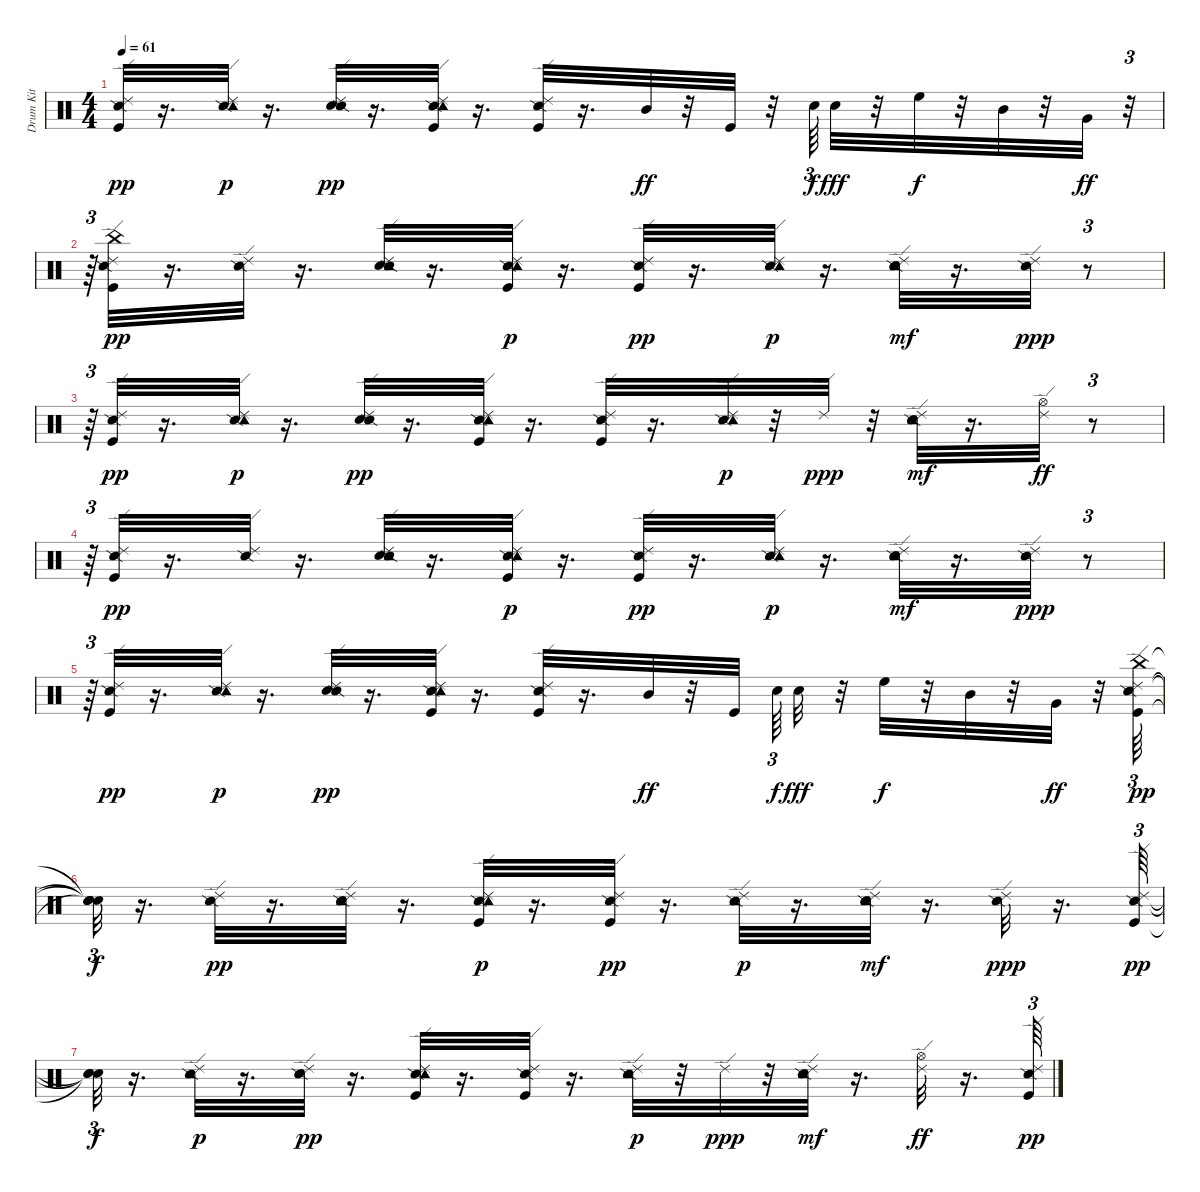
\track ("Drum Kit" "Drum Kit") {instrument percussion}
\staff {score}
\articulation defaults
\ts (4 4)
\tempo 61
\clef neutral
\ks c
("Kick (hit)" "Ride (edge) 2" "Snare (side stick) 2").32{dy pp} r.16{d} ("Ride (edge) 2" "Snare (side stick) 2" "Tambourine (hit)").32{dy p} r.16{d} ("Snare (hit) 2" "Ride (edge) 2" "Snare (side stick) 2").32{dy pp} r.16{d} ("Kick (hit)" "Ride (edge) 2" "Snare (side stick) 2" "Tambourine (hit)").32 r.16{d} ("Kick (hit)" "Ride (edge) 2" "Snare (side stick) 2").32 r.16{d} "Mid Tom (hit)".32{dy ff} r.32 "Kick (hit)".32 r.32 "Snare (hit) 2".64{tu (3 2) dy f} "Electric Snare (hit)".32{dy fff} r.32 "High Floor Tom (hit)".32{dy f} r.32 "Mid Tom (hit)".32 r.32 "Very Low Tom (hit)".32{dy ff} r.32{tu (3 2)} |
r.64{tu (3 2)} ("China (hit)" "Kick (hit)" "Ride (edge) 2" "Snare (side stick) 2").32{dy pp} r.16{d} ("Ride (edge) 2" "Snare (side stick) 2").32 r.16{d} ("Snare (hit) 2" "Ride (edge) 2" "Snare (side stick) 2" "Tambourine (hit)").32 r.16{d} ("Kick (hit)" "Ride (edge) 2" "Snare (side stick) 2" "Tambourine (hit)").32{dy p} r.16{d} ("Kick (hit)" "Ride (edge) 2" "Snare (side stick) 2").32{dy pp} r.16{d} ("Ride (edge) 2" "Snare (side stick) 2" "Tambourine (hit)").32{dy p} r.16{d} ("Snare (hit) 2" "Ride (edge) 2" "Snare (side stick) 2" "Tambourine (hit)").32{dy mf} r.16{d} ("Ride (edge) 2" "Snare (side stick) 2").32{dy ppp} r.8{tu (3 2)} |
r.64{tu (3 2)} ("Kick (hit)" "Ride (edge) 2" "Snare (side stick) 2").32{dy pp} r.16{d} ("Ride (edge) 2" "Snare (side stick) 2" "Tambourine (hit)").32{dy p} r.16{d} ("Snare (hit) 2" "Ride (edge) 2" "Snare (side stick) 2").32{dy pp} r.16{d} ("Kick (hit)" "Ride (edge) 2" "Snare (side stick) 2" "Tambourine (hit)").32 r.16{d} ("Kick (hit)" "Ride (edge) 2" "Snare (side stick) 2").32 r.16{d} ("Ride (edge) 2" "Snare (side stick) 2" "Tambourine (hit)").32{dy p} r.32 "Ride (edge) 2".32{dy ppp} r.32 ("Snare (hit) 2" "Ride (edge) 2" "Snare (side stick) 2" "Tambourine (hit)").32{dy mf} r.16{d} ("Ride (edge) 2" "Hi-Hat (open)").32{dy ff} r.8{tu (3 2)} |
r.64{tu (3 2)} ("Kick (hit)" "Ride (edge) 2" "Snare (side stick) 2").32{dy pp} r.16{d} ("Ride (edge) 2" "Snare (side stick) 2").32 r.16{d} ("Snare (hit) 2" "Ride (edge) 2" "Snare (side stick) 2" "Tambourine (hit)").32 r.16{d} ("Kick (hit)" "Ride (edge) 2" "Snare (side stick) 2" "Tambourine (hit)").32{dy p} r.16{d} ("Kick (hit)" "Ride (edge) 2" "Snare (side stick) 2").32{dy pp} r.16{d} ("Ride (edge) 2" "Snare (side stick) 2" "Tambourine (hit)").32{dy p} r.16{d} ("Snare (hit) 2" "Ride (edge) 2" "Snare (side stick) 2" "Tambourine (hit)").32{dy mf} r.16{d} ("Ride (edge) 2" "Snare (side stick) 2").32{dy ppp} r.8{tu (3 2)} |
r.64{tu (3 2)} ("Kick (hit)" "Ride (edge) 2" "Snare (side stick) 2").32{dy pp} r.16{d} ("Ride (edge) 2" "Snare (side stick) 2" "Tambourine (hit)").32{dy p} r.16{d} ("Snare (hit) 2" "Ride (edge) 2" "Snare (side stick) 2").32{dy pp} r.16{d} ("Kick (hit)" "Ride (edge) 2" "Snare (side stick) 2" "Tambourine (hit)").32 r.16{d} ("Kick (hit)" "Ride (edge) 2" "Snare (side stick) 2").32 r.16{d} "Mid Tom (hit)".32{dy ff} r.32 "Kick (hit)".32{beam splitsecondary} "Snare (hit) 2".64{tu (3 2) dy f} "Electric Snare (hit)".32{dy fff} r.32 "High Floor Tom (hit)".32{dy f} r.32 "Mid Tom (hit)".32 r.32 "Very Low Tom (hit)".32{dy ff} r.32 ("China (hit)" "Kick (hit)" "Ride (edge) 2" "Snare (side stick) 2").64{tu (3 2) dy pp} |
("Snare (hit)"{t} "Snare (hit)"{t} "Snare (hit)"{t} "Snare (hit)"{t}).32{tu (3 2) dy f} r.16{d} ("Ride (edge) 2" "Snare (side stick) 2").32{dy pp} r.16{d} ("Snare (hit) 2" "Ride (edge) 2" "Snare (side stick) 2" "Tambourine (hit)").32 r.16{d} ("Kick (hit)" "Ride (edge) 2" "Snare (side stick) 2" "Tambourine (hit)").32{dy p} r.16{d} ("Kick (hit)" "Ride (edge) 2" "Snare (side stick) 2").32{dy pp} r.16{d} ("Ride (edge) 2" "Snare (side stick) 2" "Tambourine (hit)").32{dy p} r.16{d} ("Snare (hit) 2" "Ride (edge) 2" "Snare (side stick) 2" "Tambourine (hit)").32{dy mf} r.16{d} ("Ride (edge) 2" "Snare (side stick) 2").32{dy ppp} r.16{d} ("Kick (hit)" "Ride (edge) 2" "Snare (side stick) 2").64{tu (3 2) dy pp} |
("Snare (hit)"{t} "Snare (hit)"{t} "Snare (hit)"{t}).32{tu (3 2) dy f} r.16{d} ("Ride (edge) 2" "Snare (side stick) 2" "Tambourine (hit)").32{dy p} r.16{d} ("Snare (hit) 2" "Ride (edge) 2" "Snare (side stick) 2").32{dy pp} r.16{d} ("Kick (hit)" "Ride (edge) 2" "Snare (side stick) 2" "Tambourine (hit)").32 r.16{d} ("Kick (hit)" "Ride (edge) 2" "Snare (side stick) 2").32 r.16{d} ("Ride (edge) 2" "Snare (side stick) 2" "Tambourine (hit)").32{dy p} r.32 "Ride (edge) 2".32{dy ppp} r.32 ("Snare (hit) 2" "Ride (edge) 2" "Snare (side stick) 2" "Tambourine (hit)").32{dy mf} r.16{d} ("Ride (edge) 2" "Hi-Hat (open)").32{dy ff} r.16{d} ("Kick (hit)" "Ride (edge) 2" "Snare (side stick) 2").64{tu (3 2) dy pp}
